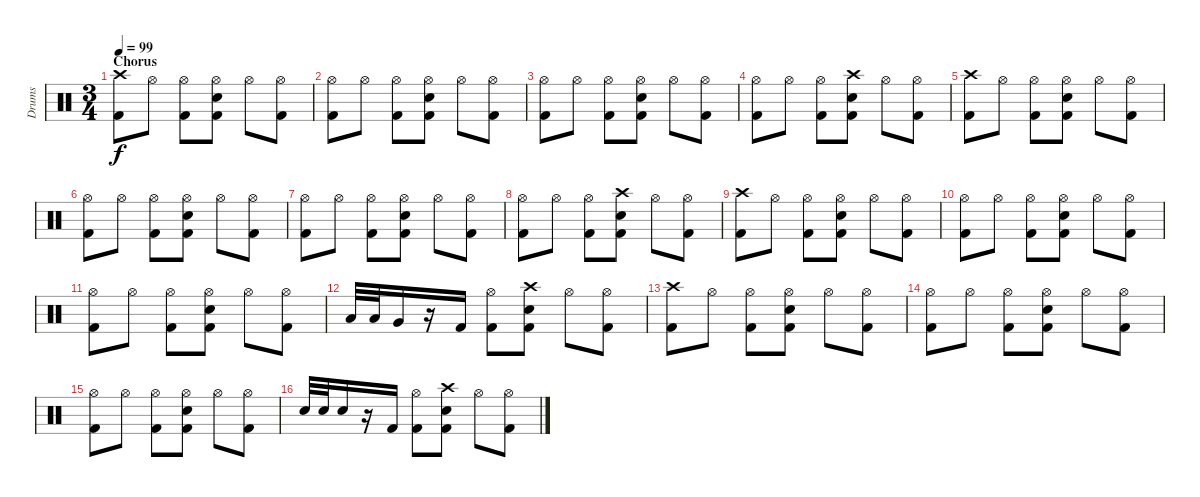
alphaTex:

\track ("Drums" "Drums") {instrument percussion}
\staff {score}
\articulation defaults
\ts (3 4)
\section ("" "Chorus")
\tempo 99
\clef neutral
\ks c
("Crash high (hit)" "Kick (hit) 2").8{dy f} "Hi-Hat (open)".8 ("Hi-Hat (open)" "Kick (hit) 2").8 ("Hi-Hat (open)" "Snare (hit) 2" "Kick (hit) 2").8 "Hi-Hat (open)".8 ("Hi-Hat (open)" "Kick (hit) 2").8 |
("Hi-Hat (open)" "Kick (hit) 2").8 "Hi-Hat (open)".8 ("Hi-Hat (open)" "Kick (hit) 2").8 ("Hi-Hat (open)" "Snare (hit) 2" "Kick (hit) 2").8 "Hi-Hat (open)".8 ("Hi-Hat (open)" "Kick (hit) 2").8 |
("Hi-Hat (open)" "Kick (hit) 2").8 "Hi-Hat (open)".8 ("Hi-Hat (open)" "Kick (hit) 2").8 ("Hi-Hat (open)" "Snare (hit) 2" "Kick (hit) 2").8 "Hi-Hat (open)".8 ("Hi-Hat (open)" "Kick (hit) 2").8 |
("Hi-Hat (open)" "Kick (hit) 2").8 "Hi-Hat (open)".8 ("Hi-Hat (open)" "Kick (hit) 2").8 ("Crash high (hit)" "Snare (hit) 2" "Kick (hit) 2").8 "Hi-Hat (open)".8 ("Hi-Hat (open)" "Kick (hit) 2").8 |
("Crash high (hit)" "Kick (hit) 2").8 "Hi-Hat (open)".8 ("Hi-Hat (open)" "Kick (hit) 2").8 ("Hi-Hat (open)" "Snare (hit) 2" "Kick (hit) 2").8 "Hi-Hat (open)".8 ("Hi-Hat (open)" "Kick (hit) 2").8 |
("Hi-Hat (open)" "Kick (hit) 2").8 "Hi-Hat (open)".8 ("Hi-Hat (open)" "Kick (hit) 2").8 ("Hi-Hat (open)" "Snare (hit) 2" "Kick (hit) 2").8 "Hi-Hat (open)".8 ("Hi-Hat (open)" "Kick (hit) 2").8 |
("Hi-Hat (open)" "Kick (hit) 2").8 "Hi-Hat (open)".8 ("Hi-Hat (open)" "Kick (hit) 2").8 ("Hi-Hat (open)" "Snare (hit) 2" "Kick (hit) 2").8 "Hi-Hat (open)".8 ("Hi-Hat (open)" "Kick (hit) 2").8 |
("Hi-Hat (open)" "Kick (hit) 2").8 "Hi-Hat (open)".8 ("Hi-Hat (open)" "Kick (hit) 2").8 ("Crash high (hit)" "Snare (hit) 2" "Kick (hit) 2").8 "Hi-Hat (open)".8 ("Hi-Hat (open)" "Kick (hit) 2").8 |
("Crash high (hit)" "Kick (hit) 2").8 "Hi-Hat (open)".8 ("Hi-Hat (open)" "Kick (hit) 2").8 ("Hi-Hat (open)" "Snare (hit) 2" "Kick (hit) 2").8 "Hi-Hat (open)".8 ("Hi-Hat (open)" "Kick (hit) 2").8 |
("Hi-Hat (open)" "Kick (hit) 2").8 "Hi-Hat (open)".8 ("Hi-Hat (open)" "Kick (hit) 2").8 ("Hi-Hat (open)" "Snare (hit) 2" "Kick (hit) 2").8 "Hi-Hat (open)".8 ("Hi-Hat (open)" "Kick (hit) 2").8 |
("Hi-Hat (open)" "Kick (hit) 2").8 "Hi-Hat (open)".8 ("Hi-Hat (open)" "Kick (hit) 2").8 ("Hi-Hat (open)" "Snare (hit) 2" "Kick (hit) 2").8 "Hi-Hat (open)".8 ("Hi-Hat (open)" "Kick (hit) 2").8 |
"Low Tom (hit)".32 "Low Tom (hit)".32 "Very Low Tom (hit)".16 r.16 "Kick (hit) 2".16 ("Hi-Hat (open)" "Kick (hit) 2").8 ("Crash high (hit)" "Snare (hit) 2" "Kick (hit) 2").8 "Hi-Hat (open)".8 ("Hi-Hat (open)" "Kick (hit) 2").8 |
("Crash high (hit)" "Kick (hit) 2").8 "Hi-Hat (open)".8 ("Hi-Hat (open)" "Kick (hit) 2").8 ("Hi-Hat (open)" "Snare (hit) 2" "Kick (hit) 2").8 "Hi-Hat (open)".8 ("Hi-Hat (open)" "Kick (hit) 2").8 |
("Hi-Hat (open)" "Kick (hit) 2").8 "Hi-Hat (open)".8 ("Hi-Hat (open)" "Kick (hit) 2").8 ("Hi-Hat (open)" "Snare (hit) 2" "Kick (hit) 2").8 "Hi-Hat (open)".8 ("Hi-Hat (open)" "Kick (hit) 2").8 |
("Hi-Hat (open)" "Kick (hit) 2").8 "Hi-Hat (open)".8 ("Hi-Hat (open)" "Kick (hit) 2").8 ("Hi-Hat (open)" "Snare (hit) 2" "Kick (hit) 2").8 "Hi-Hat (open)".8 ("Hi-Hat (open)" "Kick (hit) 2").8 |
"Snare (hit) 2".32 "Snare (hit) 2".32 "Snare (hit) 2".16 r.16 "Kick (hit) 2".16 ("Hi-Hat (open)" "Kick (hit) 2").8 ("Crash high (hit)" "Snare (hit) 2" "Kick (hit) 2").8 "Hi-Hat (open)".8 ("Hi-Hat (open)" "Kick (hit) 2").8
